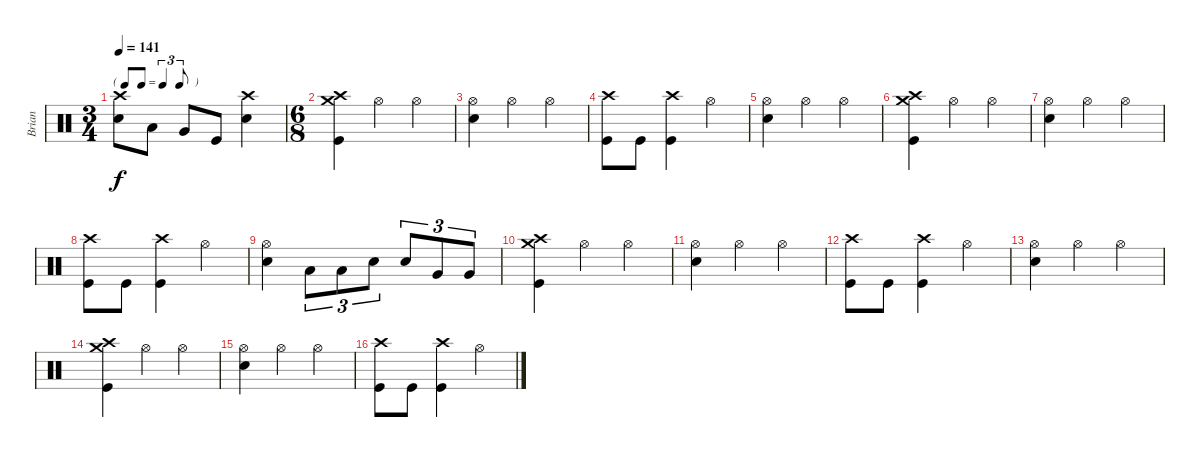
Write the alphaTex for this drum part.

\track ("Brian" "Brian") {instrument percussion}
\staff {score}
\articulation defaults
\ts (3 4)
\tf triplet8th
\tempo 141
\clef neutral
\ks c
("Crash high (hit)" "Electric Snare (hit)").8{dy f} "Low Tom (hit)".8 "Very Low Tom (hit)".8 "Kick (hit)".8 ("Crash high (hit)" "Electric Snare (hit)").4 |
\ts (6 8)
("Crash medium (hit)" "Crash high (hit)" "Kick (hit)").4 "Hi-Hat (open)".4 "Hi-Hat (open)".4 |
("Hi-Hat (open)" "Electric Snare (hit)").4 "Hi-Hat (open)".4 "Hi-Hat (open)".4 |
("Crash high (hit)" "Kick (hit)").8 "Kick (hit)".8 ("Crash high (hit)" "Kick (hit)").4 "Hi-Hat (open)".4 |
("Hi-Hat (open)" "Electric Snare (hit)").4 "Hi-Hat (open)".4 "Hi-Hat (open)".4 |
("Crash medium (hit)" "Crash high (hit)" "Kick (hit)").4 "Hi-Hat (open)".4 "Hi-Hat (open)".4 |
("Hi-Hat (open)" "Electric Snare (hit)").4 "Hi-Hat (open)".4 "Hi-Hat (open)".4 |
("Crash high (hit)" "Kick (hit)").8 "Kick (hit)".8 ("Crash high (hit)" "Kick (hit)").4 "Hi-Hat (open)".4 |
("Hi-Hat (open)" "Electric Snare (hit)").4 "Low Tom (hit)".8{tu (3 2)} "Low Tom (hit)".8{tu (3 2)} "Electric Snare (hit)".8{tu (3 2)} "Electric Snare (hit)".8{tu (3 2)} "Very Low Tom (hit)".8{tu (3 2)} "Very Low Tom (hit)".8{tu (3 2)} |
("Crash medium (hit)" "Crash high (hit)" "Kick (hit)").4 "Hi-Hat (open)".4 "Hi-Hat (open)".4 |
("Hi-Hat (open)" "Electric Snare (hit)").4 "Hi-Hat (open)".4 "Hi-Hat (open)".4 |
("Crash high (hit)" "Kick (hit)").8 "Kick (hit)".8 ("Crash high (hit)" "Kick (hit)").4 "Hi-Hat (open)".4 |
("Hi-Hat (open)" "Electric Snare (hit)").4 "Hi-Hat (open)".4 "Hi-Hat (open)".4 |
("Crash medium (hit)" "Crash high (hit)" "Kick (hit)").4 "Hi-Hat (open)".4 "Hi-Hat (open)".4 |
("Hi-Hat (open)" "Electric Snare (hit)").4 "Hi-Hat (open)".4 "Hi-Hat (open)".4 |
("Crash high (hit)" "Kick (hit)").8 "Kick (hit)".8 ("Crash high (hit)" "Kick (hit)").4 "Hi-Hat (open)".4
